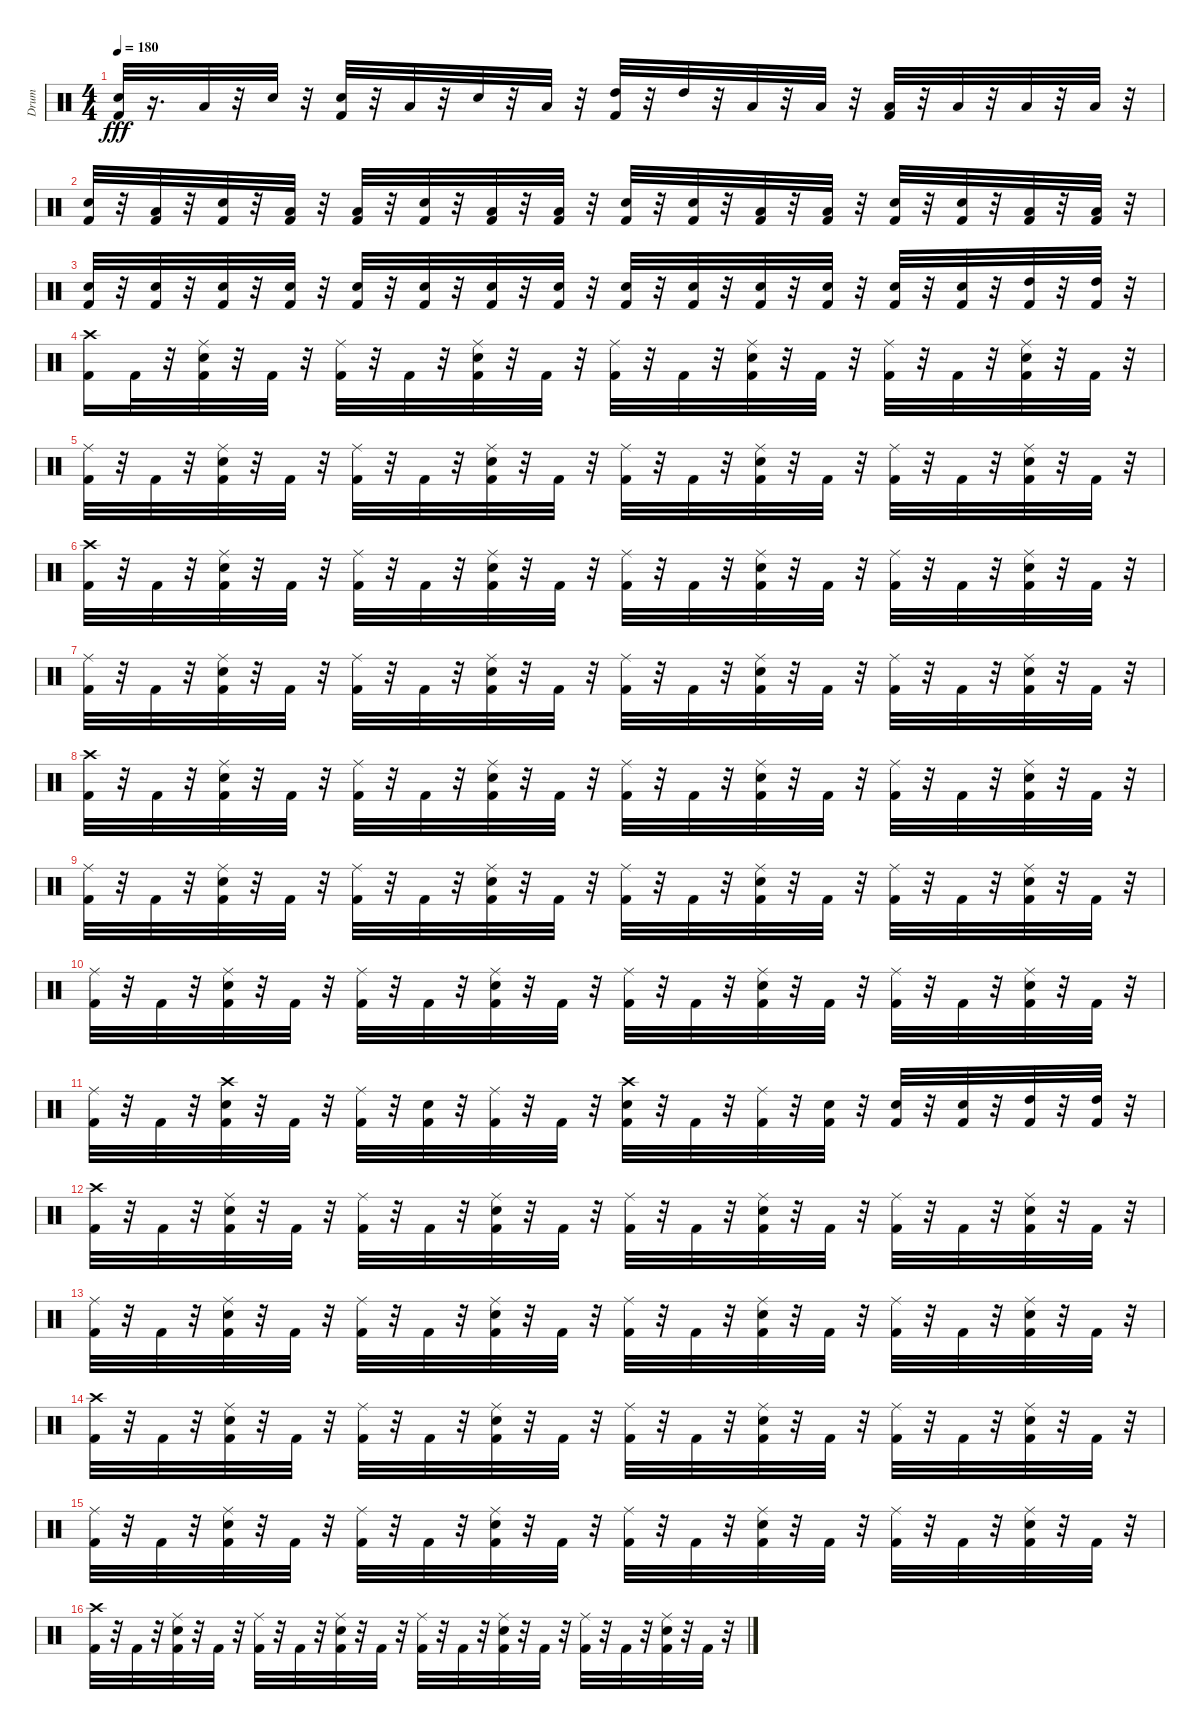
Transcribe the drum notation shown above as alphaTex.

\track ("Drum" "Drum") {instrument percussion}
\staff {score}
\articulation defaults
\ts (4 4)
\tempo 180
\clef neutral
\ks c
("Kick (hit) 2" "Snare (hit) 2").32{dy fff} r.16{d} "Low Floor Tom (hit)".32 r.32 "Snare (hit) 2".32 r.32 ("Kick (hit) 2" "Snare (hit) 2").32 r.32 "Low Floor Tom (hit)".32 r.32 "Snare (hit) 2".32 r.32 "Low Floor Tom (hit)".32 r.32 ("Kick (hit) 2" "High Tom (hit)").32 r.32 "High Tom (hit)".32 r.32 "Low Tom (hit)".32 r.32 "Low Tom (hit)".32 r.32 ("Kick (hit) 2" "Low Floor Tom (hit)").32 r.32 "Low Floor Tom (hit)".32 r.32 "Low Floor Tom (hit)".32 r.32 "Low Floor Tom (hit)".32 r.32 |
("Kick (hit) 2" "Snare (hit) 2").32 r.32 ("Kick (hit) 2" "Low Floor Tom (hit)").32 r.32 ("Kick (hit) 2" "Snare (hit) 2").32 r.32 ("Kick (hit) 2" "Low Floor Tom (hit)").32 r.32 ("Kick (hit) 2" "Low Floor Tom (hit)").32 r.32 ("Kick (hit) 2" "Snare (hit) 2").32 r.32 ("Kick (hit) 2" "Low Floor Tom (hit)").32 r.32 ("Kick (hit) 2" "Low Floor Tom (hit)").32 r.32 ("Kick (hit) 2" "Snare (hit) 2").32 r.32 ("Kick (hit) 2" "Snare (hit) 2").32 r.32 ("Kick (hit) 2" "Low Floor Tom (hit)").32 r.32 ("Kick (hit) 2" "Low Floor Tom (hit)").32 r.32 ("Kick (hit) 2" "Snare (hit) 2").32 r.32 ("Kick (hit) 2" "Snare (hit) 2").32 r.32 ("Kick (hit) 2" "Low Floor Tom (hit)").32 r.32 ("Kick (hit) 2" "Low Floor Tom (hit)").32 r.32 |
("Kick (hit) 2" "Snare (hit) 2").32 r.32 ("Kick (hit) 2" "Snare (hit) 2").32 r.32 ("Kick (hit) 2" "Snare (hit) 2").32 r.32 ("Kick (hit) 2" "Snare (hit) 2").32 r.32 ("Kick (hit) 2" "Snare (hit) 2").32 r.32 ("Kick (hit) 2" "Snare (hit) 2").32 r.32 ("Kick (hit) 2" "Snare (hit) 2").32 r.32 ("Kick (hit) 2" "Snare (hit) 2").32 r.32 ("Kick (hit) 2" "Snare (hit) 2").32 r.32 ("Kick (hit) 2" "Snare (hit) 2").32 r.32 ("Kick (hit) 2" "Snare (hit) 2").32 r.32 ("Kick (hit) 2" "Snare (hit) 2").32 r.32 ("Kick (hit) 2" "Snare (hit) 2").32 r.32 ("Kick (hit) 2" "Snare (hit) 2").32 r.32 ("Kick (hit) 2" "High Tom (hit)").32 r.32 ("Kick (hit) 2" "High Tom (hit)").32 r.32 |
("Kick (hit) 2" "Crash high (hit)").16{volume 10} "Kick (hit) 2".32 r.32 ("Kick (hit) 2" "Snare (hit) 2" "Ride (middle)").32 r.32 "Kick (hit) 2".32 r.32 ("Kick (hit) 2" "Ride (middle)").32 r.32 "Kick (hit) 2".32 r.32 ("Kick (hit) 2" "Snare (hit) 2" "Ride (middle)").32 r.32 "Kick (hit) 2".32 r.32 ("Kick (hit) 2" "Ride (middle)").32 r.32 "Kick (hit) 2".32 r.32 ("Kick (hit) 2" "Snare (hit) 2" "Ride (middle)").32 r.32 "Kick (hit) 2".32 r.32 ("Kick (hit) 2" "Ride (middle)").32 r.32 "Kick (hit) 2".32 r.32 ("Kick (hit) 2" "Snare (hit) 2" "Ride (middle)").32 r.32 "Kick (hit) 2".32 r.32 |
("Ride (middle)" "Kick (hit) 2").32 r.32 "Kick (hit) 2".32 r.32 ("Ride (middle)" "Kick (hit) 2" "Snare (hit) 2").32 r.32 "Kick (hit) 2".32 r.32 ("Ride (middle)" "Kick (hit) 2").32 r.32 "Kick (hit) 2".32 r.32 ("Ride (middle)" "Kick (hit) 2" "Snare (hit) 2").32 r.32 "Kick (hit) 2".32 r.32 ("Ride (middle)" "Kick (hit) 2").32 r.32 "Kick (hit) 2".32 r.32 ("Ride (middle)" "Kick (hit) 2" "Snare (hit) 2").32 r.32 "Kick (hit) 2".32 r.32 ("Ride (middle)" "Kick (hit) 2").32 r.32 "Kick (hit) 2".32 r.32 ("Ride (middle)" "Kick (hit) 2" "Snare (hit) 2").32 r.32 "Kick (hit) 2".32 r.32 |
("Kick (hit) 2" "Crash high (hit)").32 r.32 "Kick (hit) 2".32 r.32 ("Kick (hit) 2" "Snare (hit) 2" "Ride (middle)").32 r.32 "Kick (hit) 2".32 r.32 ("Kick (hit) 2" "Ride (middle)").32 r.32 "Kick (hit) 2".32 r.32 ("Kick (hit) 2" "Snare (hit) 2" "Ride (middle)").32 r.32 "Kick (hit) 2".32 r.32 ("Kick (hit) 2" "Ride (middle)").32 r.32 "Kick (hit) 2".32 r.32 ("Kick (hit) 2" "Snare (hit) 2" "Ride (middle)").32 r.32 "Kick (hit) 2".32 r.32 ("Kick (hit) 2" "Ride (middle)").32 r.32 "Kick (hit) 2".32 r.32 ("Kick (hit) 2" "Snare (hit) 2" "Ride (middle)").32 r.32 "Kick (hit) 2".32 r.32 |
("Ride (middle)" "Kick (hit) 2").32 r.32 "Kick (hit) 2".32 r.32 ("Ride (middle)" "Kick (hit) 2" "Snare (hit) 2").32 r.32 "Kick (hit) 2".32 r.32 ("Ride (middle)" "Kick (hit) 2").32 r.32 "Kick (hit) 2".32 r.32 ("Ride (middle)" "Kick (hit) 2" "Snare (hit) 2").32 r.32 "Kick (hit) 2".32 r.32 ("Ride (middle)" "Kick (hit) 2").32 r.32 "Kick (hit) 2".32 r.32 ("Ride (middle)" "Kick (hit) 2" "Snare (hit) 2").32 r.32 "Kick (hit) 2".32 r.32 ("Ride (middle)" "Kick (hit) 2").32 r.32 "Kick (hit) 2".32 r.32 ("Ride (middle)" "Kick (hit) 2" "Snare (hit) 2").32 r.32 "Kick (hit) 2".32 r.32 |
("Kick (hit) 2" "Crash high (hit)").32 r.32 "Kick (hit) 2".32 r.32 ("Kick (hit) 2" "Snare (hit) 2" "Ride (middle)").32 r.32 "Kick (hit) 2".32 r.32 ("Kick (hit) 2" "Ride (middle)").32 r.32 "Kick (hit) 2".32 r.32 ("Kick (hit) 2" "Snare (hit) 2" "Ride (middle)").32 r.32 "Kick (hit) 2".32 r.32 ("Kick (hit) 2" "Ride (middle)").32 r.32 "Kick (hit) 2".32 r.32 ("Kick (hit) 2" "Snare (hit) 2" "Ride (middle)").32 r.32 "Kick (hit) 2".32 r.32 ("Kick (hit) 2" "Ride (middle)").32 r.32 "Kick (hit) 2".32 r.32 ("Kick (hit) 2" "Snare (hit) 2" "Ride (middle)").32 r.32 "Kick (hit) 2".32 r.32 |
("Ride (middle)" "Kick (hit) 2").32 r.32 "Kick (hit) 2".32 r.32 ("Ride (middle)" "Kick (hit) 2" "Snare (hit) 2").32 r.32 "Kick (hit) 2".32 r.32 ("Ride (middle)" "Kick (hit) 2").32 r.32 "Kick (hit) 2".32 r.32 ("Ride (middle)" "Kick (hit) 2" "Snare (hit) 2").32 r.32 "Kick (hit) 2".32 r.32 ("Ride (middle)" "Kick (hit) 2").32 r.32 "Kick (hit) 2".32 r.32 ("Ride (middle)" "Kick (hit) 2" "Snare (hit) 2").32 r.32 "Kick (hit) 2".32 r.32 ("Ride (middle)" "Kick (hit) 2").32 r.32 "Kick (hit) 2".32 r.32 ("Ride (middle)" "Kick (hit) 2" "Snare (hit) 2").32 r.32 "Kick (hit) 2".32 r.32 |
("Ride (middle)" "Kick (hit) 2").32 r.32 "Kick (hit) 2".32 r.32 ("Ride (middle)" "Kick (hit) 2" "Snare (hit) 2").32 r.32 "Kick (hit) 2".32 r.32 ("Ride (middle)" "Kick (hit) 2").32 r.32 "Kick (hit) 2".32 r.32 ("Ride (middle)" "Kick (hit) 2" "Snare (hit) 2").32 r.32 "Kick (hit) 2".32 r.32 ("Ride (middle)" "Kick (hit) 2").32 r.32 "Kick (hit) 2".32 r.32 ("Ride (middle)" "Kick (hit) 2" "Snare (hit) 2").32 r.32 "Kick (hit) 2".32 r.32 ("Ride (middle)" "Kick (hit) 2").32 r.32 "Kick (hit) 2".32 r.32 ("Ride (middle)" "Kick (hit) 2" "Snare (hit) 2").32 r.32 "Kick (hit) 2".32 r.32 |
("Ride (middle)" "Kick (hit) 2").32 r.32 "Kick (hit) 2".32 r.32 ("Snare (hit) 2" "Crash high (hit)" "Kick (hit) 2").32 r.32 "Kick (hit) 2".32 r.32 ("Ride (middle)" "Kick (hit) 2").32 r.32 ("Snare (hit) 2" "Kick (hit) 2").32 r.32 ("Ride (middle)" "Kick (hit) 2").32 r.32 "Kick (hit) 2".32 r.32 ("Snare (hit) 2" "Crash high (hit)" "Kick (hit) 2").32 r.32 "Kick (hit) 2".32 r.32 ("Ride (middle)" "Kick (hit) 2").32 r.32 ("Snare (hit) 2" "Kick (hit) 2").32 r.32 ("Snare (hit) 2" "Kick (hit) 2").32 r.32 ("Snare (hit) 2" "Kick (hit) 2").32 r.32 ("High Tom (hit)" "Kick (hit) 2").32 r.32 ("High Tom (hit)" "Kick (hit) 2").32 r.32 |
("Kick (hit) 2" "Crash high (hit)").32 r.32 "Kick (hit) 2".32 r.32 ("Kick (hit) 2" "Snare (hit) 2" "Ride (middle)").32 r.32 "Kick (hit) 2".32 r.32 ("Kick (hit) 2" "Ride (middle)").32 r.32 "Kick (hit) 2".32 r.32 ("Kick (hit) 2" "Snare (hit) 2" "Ride (middle)").32 r.32 "Kick (hit) 2".32 r.32 ("Kick (hit) 2" "Ride (middle)").32 r.32 "Kick (hit) 2".32 r.32 ("Kick (hit) 2" "Snare (hit) 2" "Ride (middle)").32 r.32 "Kick (hit) 2".32 r.32 ("Kick (hit) 2" "Ride (middle)").32 r.32 "Kick (hit) 2".32 r.32 ("Kick (hit) 2" "Snare (hit) 2" "Ride (middle)").32 r.32 "Kick (hit) 2".32 r.32 |
("Ride (middle)" "Kick (hit) 2").32 r.32 "Kick (hit) 2".32 r.32 ("Ride (middle)" "Kick (hit) 2" "Snare (hit) 2").32 r.32 "Kick (hit) 2".32 r.32 ("Ride (middle)" "Kick (hit) 2").32 r.32 "Kick (hit) 2".32 r.32 ("Ride (middle)" "Kick (hit) 2" "Snare (hit) 2").32 r.32 "Kick (hit) 2".32 r.32 ("Ride (middle)" "Kick (hit) 2").32 r.32 "Kick (hit) 2".32 r.32 ("Ride (middle)" "Kick (hit) 2" "Snare (hit) 2").32 r.32 "Kick (hit) 2".32 r.32 ("Ride (middle)" "Kick (hit) 2").32 r.32 "Kick (hit) 2".32 r.32 ("Ride (middle)" "Kick (hit) 2" "Snare (hit) 2").32 r.32 "Kick (hit) 2".32 r.32 |
("Kick (hit) 2" "Crash high (hit)").32 r.32 "Kick (hit) 2".32 r.32 ("Kick (hit) 2" "Snare (hit) 2" "Ride (middle)").32 r.32 "Kick (hit) 2".32 r.32 ("Kick (hit) 2" "Ride (middle)").32 r.32 "Kick (hit) 2".32 r.32 ("Kick (hit) 2" "Snare (hit) 2" "Ride (middle)").32 r.32 "Kick (hit) 2".32 r.32 ("Kick (hit) 2" "Ride (middle)").32 r.32 "Kick (hit) 2".32 r.32 ("Kick (hit) 2" "Snare (hit) 2" "Ride (middle)").32 r.32 "Kick (hit) 2".32 r.32 ("Kick (hit) 2" "Ride (middle)").32 r.32 "Kick (hit) 2".32 r.32 ("Kick (hit) 2" "Snare (hit) 2" "Ride (middle)").32 r.32 "Kick (hit) 2".32 r.32 |
("Ride (middle)" "Kick (hit) 2").32 r.32 "Kick (hit) 2".32 r.32 ("Ride (middle)" "Kick (hit) 2" "Snare (hit) 2").32 r.32 "Kick (hit) 2".32 r.32 ("Ride (middle)" "Kick (hit) 2").32 r.32 "Kick (hit) 2".32 r.32 ("Ride (middle)" "Kick (hit) 2" "Snare (hit) 2").32 r.32 "Kick (hit) 2".32 r.32 ("Ride (middle)" "Kick (hit) 2").32 r.32 "Kick (hit) 2".32 r.32 ("Ride (middle)" "Kick (hit) 2" "Snare (hit) 2").32 r.32 "Kick (hit) 2".32 r.32 ("Ride (middle)" "Kick (hit) 2").32 r.32 "Kick (hit) 2".32 r.32 ("Ride (middle)" "Kick (hit) 2" "Snare (hit) 2").32 r.32 "Kick (hit) 2".32 r.32 |
("Kick (hit) 2" "Crash high (hit)").32 r.32 "Kick (hit) 2".32 r.32 ("Kick (hit) 2" "Snare (hit) 2" "Ride (middle)").32 r.32 "Kick (hit) 2".32 r.32 ("Kick (hit) 2" "Ride (middle)").32 r.32 "Kick (hit) 2".32 r.32 ("Kick (hit) 2" "Snare (hit) 2" "Ride (middle)").32 r.32 "Kick (hit) 2".32 r.32 ("Kick (hit) 2" "Ride (middle)").32 r.32 "Kick (hit) 2".32 r.32 ("Kick (hit) 2" "Snare (hit) 2" "Ride (middle)").32 r.32 "Kick (hit) 2".32 r.32 ("Kick (hit) 2" "Ride (middle)").32 r.32 "Kick (hit) 2".32 r.32 ("Kick (hit) 2" "Snare (hit) 2" "Ride (middle)").32 r.32 "Kick (hit) 2".32 r.32
